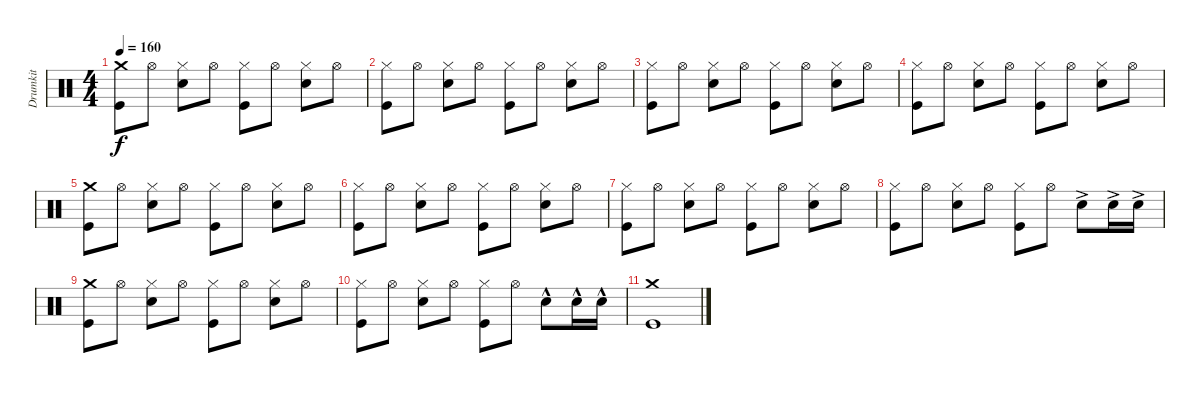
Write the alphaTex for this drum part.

\track ("Drumkit" "Drumkit") {instrument percussion}
\staff {score}
\articulation defaults
\ts (4 4)
\tempo 160
\clef neutral
\ks c
("Crash medium (hit)" "Kick (hit)").8{dy f} "Hi-Hat (open)".8 ("Snare (hit) 2" "Hi-Hat (closed)").8 "Hi-Hat (open)".8 ("Kick (hit)" "Hi-Hat (closed)").8 "Hi-Hat (open)".8 ("Snare (hit) 2" "Hi-Hat (closed)").8 "Hi-Hat (open)".8 |
("Hi-Hat (closed)" "Kick (hit)").8 "Hi-Hat (open)".8 ("Hi-Hat (closed)" "Snare (hit) 2").8 "Hi-Hat (open)".8 ("Hi-Hat (closed)" "Kick (hit)").8 "Hi-Hat (open)".8 ("Hi-Hat (closed)" "Snare (hit) 2").8 "Hi-Hat (open)".8 |
("Hi-Hat (closed)" "Kick (hit)").8 "Hi-Hat (open)".8 ("Hi-Hat (closed)" "Snare (hit) 2").8 "Hi-Hat (open)".8 ("Hi-Hat (closed)" "Kick (hit)").8 "Hi-Hat (open)".8 ("Hi-Hat (closed)" "Snare (hit) 2").8 "Hi-Hat (open)".8 |
("Hi-Hat (closed)" "Kick (hit)").8 "Hi-Hat (open)".8 ("Hi-Hat (closed)" "Snare (hit) 2").8 "Hi-Hat (open)".8 ("Hi-Hat (closed)" "Kick (hit)").8 "Hi-Hat (open)".8 ("Hi-Hat (closed)" "Snare (hit) 2").8 "Hi-Hat (open)".8 |
("Crash medium (hit)" "Kick (hit)").8 "Hi-Hat (open)".8 ("Snare (hit) 2" "Hi-Hat (closed)").8 "Hi-Hat (open)".8 ("Kick (hit)" "Hi-Hat (closed)").8 "Hi-Hat (open)".8 ("Snare (hit) 2" "Hi-Hat (closed)").8 "Hi-Hat (open)".8 |
("Hi-Hat (closed)" "Kick (hit)").8 "Hi-Hat (open)".8 ("Hi-Hat (closed)" "Snare (hit) 2").8 "Hi-Hat (open)".8 ("Hi-Hat (closed)" "Kick (hit)").8 "Hi-Hat (open)".8 ("Hi-Hat (closed)" "Snare (hit) 2").8 "Hi-Hat (open)".8 |
("Hi-Hat (closed)" "Kick (hit)").8 "Hi-Hat (open)".8 ("Hi-Hat (closed)" "Snare (hit) 2").8 "Hi-Hat (open)".8 ("Hi-Hat (closed)" "Kick (hit)").8 "Hi-Hat (open)".8 ("Hi-Hat (closed)" "Snare (hit) 2").8 "Hi-Hat (open)".8 |
("Hi-Hat (closed)" "Kick (hit)").8 "Hi-Hat (open)".8 ("Hi-Hat (closed)" "Snare (hit) 2").8 "Hi-Hat (open)".8 ("Hi-Hat (closed)" "Kick (hit)").8 "Hi-Hat (open)".8 "Snare (hit) 2"{ac}.8 "Snare (hit) 2"{ac}.16 "Snare (hit) 2"{ac}.16 |
("Crash medium (hit)" "Kick (hit)").8 "Hi-Hat (open)".8 ("Snare (hit) 2" "Hi-Hat (closed)").8 "Hi-Hat (open)".8 ("Kick (hit)" "Hi-Hat (closed)").8 "Hi-Hat (open)".8 ("Snare (hit) 2" "Hi-Hat (closed)").8 "Hi-Hat (open)".8 |
("Hi-Hat (closed)" "Kick (hit)").8 "Hi-Hat (open)".8 ("Hi-Hat (closed)" "Snare (hit) 2").8 "Hi-Hat (open)".8 ("Hi-Hat (closed)" "Kick (hit)").8 "Hi-Hat (open)".8 "Snare (hit) 2"{hac}.8 "Snare (hit) 2"{hac}.16 "Snare (hit) 2"{hac}.16 |
("Crash medium (hit)" "Kick (hit)").1
